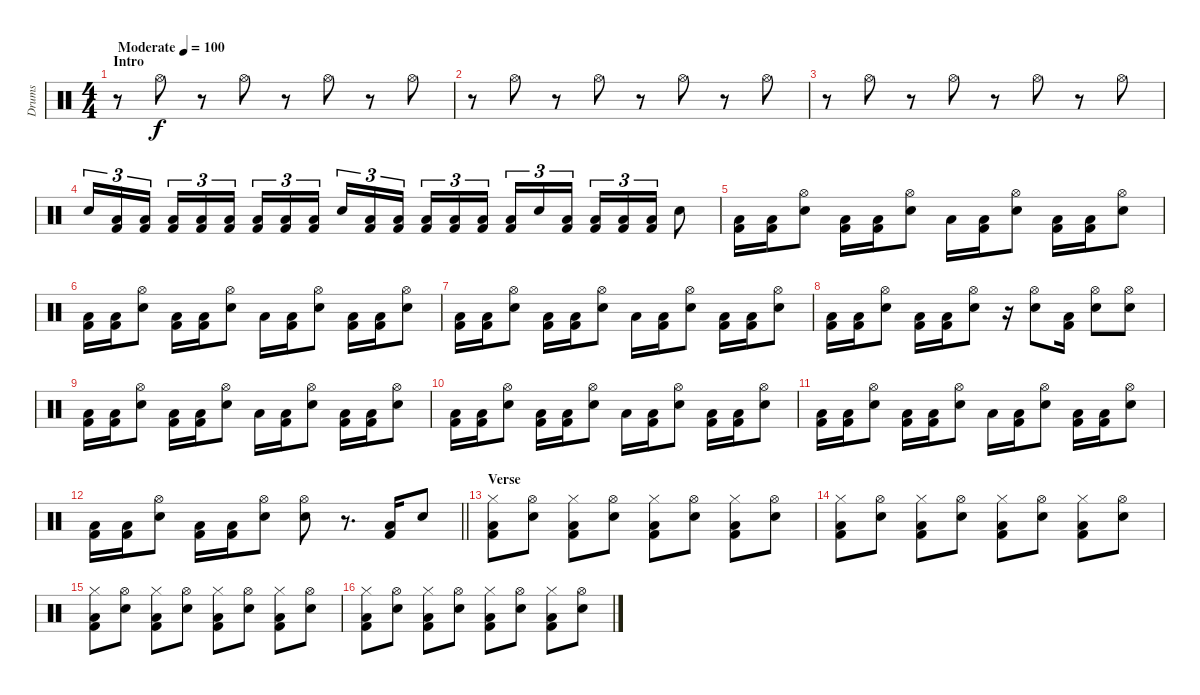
\track ("Drums" "Drums") {instrument percussion}
\staff {score}
\articulation defaults
\ts (4 4)
\section ("" "Intro")
\tempo (100 "Moderate")
\clef neutral
\ks c
r.8{dy f} "Hi-Hat (open)".8 r.8 "Hi-Hat (open)".8 r.8 "Hi-Hat (open)".8 r.8 "Hi-Hat (open)".8 |
r.8 "Hi-Hat (open)".8 r.8 "Hi-Hat (open)".8 r.8 "Hi-Hat (open)".8 r.8 "Hi-Hat (open)".8 |
r.8 "Hi-Hat (open)".8 r.8 "Hi-Hat (open)".8 r.8 "Hi-Hat (open)".8 r.8 "Hi-Hat (open)".8 |
"Snare (hit) 2".16{tu (3 2)} ("Low Floor Tom (hit)" "Kick (hit) 2").16{tu (3 2)} ("Low Floor Tom (hit)" "Kick (hit) 2").16{tu (3 2) beam splitsecondary} ("Low Floor Tom (hit)" "Kick (hit) 2").16{tu (3 2)} ("Low Floor Tom (hit)" "Kick (hit) 2").16{tu (3 2)} ("Low Floor Tom (hit)" "Kick (hit) 2").16{tu (3 2)} ("Low Floor Tom (hit)" "Kick (hit) 2").16{tu (3 2)} ("Low Floor Tom (hit)" "Kick (hit) 2").16{tu (3 2)} ("Low Floor Tom (hit)" "Kick (hit) 2").16{tu (3 2) beam splitsecondary} "Snare (hit) 2".16{tu (3 2)} ("Low Floor Tom (hit)" "Kick (hit) 2").16{tu (3 2)} ("Low Floor Tom (hit)" "Kick (hit) 2").16{tu (3 2)} ("Low Floor Tom (hit)" "Kick (hit) 2").16{tu (3 2)} ("Low Floor Tom (hit)" "Kick (hit) 2").16{tu (3 2)} ("Low Floor Tom (hit)" "Kick (hit) 2").16{tu (3 2) beam splitsecondary} ("Low Floor Tom (hit)" "Kick (hit) 2").16{tu (3 2)} "Snare (hit) 2".16{tu (3 2)} ("Low Floor Tom (hit)" "Kick (hit) 2").16{tu (3 2)} ("Low Floor Tom (hit)" "Kick (hit) 2").16{tu (3 2)} ("Low Floor Tom (hit)" "Kick (hit) 2").16{tu (3 2)} ("Low Floor Tom (hit)" "Kick (hit) 2").16{tu (3 2)} "Snare (hit) 2".8 |
("Low Floor Tom (hit)" "Kick (hit) 2").16 ("Low Floor Tom (hit)" "Kick (hit) 2").16 ("Hi-Hat (open)" "Snare (hit) 2").8 ("Low Floor Tom (hit)" "Kick (hit) 2").16 ("Low Floor Tom (hit)" "Kick (hit) 2").16 ("Hi-Hat (open)" "Snare (hit) 2").8 "Low Floor Tom (hit)".16 ("Low Floor Tom (hit)" "Kick (hit) 2").16 ("Hi-Hat (open)" "Snare (hit) 2").8 ("Low Floor Tom (hit)" "Kick (hit) 2").16 ("Low Floor Tom (hit)" "Kick (hit) 2").16 ("Hi-Hat (open)" "Snare (hit) 2").8 |
("Low Floor Tom (hit)" "Kick (hit) 2").16 ("Low Floor Tom (hit)" "Kick (hit) 2").16 ("Hi-Hat (open)" "Snare (hit) 2").8 ("Low Floor Tom (hit)" "Kick (hit) 2").16 ("Low Floor Tom (hit)" "Kick (hit) 2").16 ("Hi-Hat (open)" "Snare (hit) 2").8 "Low Floor Tom (hit)".16 ("Low Floor Tom (hit)" "Kick (hit) 2").16 ("Hi-Hat (open)" "Snare (hit) 2").8 ("Low Floor Tom (hit)" "Kick (hit) 2").16 ("Low Floor Tom (hit)" "Kick (hit) 2").16 ("Hi-Hat (open)" "Snare (hit) 2").8 |
("Low Floor Tom (hit)" "Kick (hit) 2").16 ("Low Floor Tom (hit)" "Kick (hit) 2").16 ("Hi-Hat (open)" "Snare (hit) 2").8 ("Low Floor Tom (hit)" "Kick (hit) 2").16 ("Low Floor Tom (hit)" "Kick (hit) 2").16 ("Hi-Hat (open)" "Snare (hit) 2").8 "Low Floor Tom (hit)".16 ("Low Floor Tom (hit)" "Kick (hit) 2").16 ("Hi-Hat (open)" "Snare (hit) 2").8 ("Low Floor Tom (hit)" "Kick (hit) 2").16 ("Low Floor Tom (hit)" "Kick (hit) 2").16 ("Hi-Hat (open)" "Snare (hit) 2").8 |
("Low Floor Tom (hit)" "Kick (hit) 2").16 ("Low Floor Tom (hit)" "Kick (hit) 2").16 ("Hi-Hat (open)" "Snare (hit) 2").8 ("Low Floor Tom (hit)" "Kick (hit) 2").16 ("Low Floor Tom (hit)" "Kick (hit) 2").16 ("Hi-Hat (open)" "Snare (hit) 2").8 r.16 ("Hi-Hat (open)" "Snare (hit) 2").8 ("Low Floor Tom (hit)" "Kick (hit) 2").16 ("Hi-Hat (open)" "Snare (hit) 2").8 ("Hi-Hat (open)" "Snare (hit) 2").8 |
("Low Floor Tom (hit)" "Kick (hit) 2").16 ("Low Floor Tom (hit)" "Kick (hit) 2").16 ("Hi-Hat (open)" "Snare (hit) 2").8 ("Low Floor Tom (hit)" "Kick (hit) 2").16 ("Low Floor Tom (hit)" "Kick (hit) 2").16 ("Hi-Hat (open)" "Snare (hit) 2").8 "Low Floor Tom (hit)".16 ("Low Floor Tom (hit)" "Kick (hit) 2").16 ("Hi-Hat (open)" "Snare (hit) 2").8 ("Low Floor Tom (hit)" "Kick (hit) 2").16 ("Low Floor Tom (hit)" "Kick (hit) 2").16 ("Hi-Hat (open)" "Snare (hit) 2").8 |
("Low Floor Tom (hit)" "Kick (hit) 2").16 ("Low Floor Tom (hit)" "Kick (hit) 2").16 ("Hi-Hat (open)" "Snare (hit) 2").8 ("Low Floor Tom (hit)" "Kick (hit) 2").16 ("Low Floor Tom (hit)" "Kick (hit) 2").16 ("Hi-Hat (open)" "Snare (hit) 2").8 "Low Floor Tom (hit)".16 ("Low Floor Tom (hit)" "Kick (hit) 2").16 ("Hi-Hat (open)" "Snare (hit) 2").8 ("Low Floor Tom (hit)" "Kick (hit) 2").16 ("Low Floor Tom (hit)" "Kick (hit) 2").16 ("Hi-Hat (open)" "Snare (hit) 2").8 |
("Low Floor Tom (hit)" "Kick (hit) 2").16 ("Low Floor Tom (hit)" "Kick (hit) 2").16 ("Hi-Hat (open)" "Snare (hit) 2").8 ("Low Floor Tom (hit)" "Kick (hit) 2").16 ("Low Floor Tom (hit)" "Kick (hit) 2").16 ("Hi-Hat (open)" "Snare (hit) 2").8 "Low Floor Tom (hit)".16 ("Low Floor Tom (hit)" "Kick (hit) 2").16 ("Hi-Hat (open)" "Snare (hit) 2").8 ("Low Floor Tom (hit)" "Kick (hit) 2").16 ("Low Floor Tom (hit)" "Kick (hit) 2").16 ("Hi-Hat (open)" "Snare (hit) 2").8 |
\barLineRight lightlight
("Low Floor Tom (hit)" "Kick (hit) 2").16 ("Low Floor Tom (hit)" "Kick (hit) 2").16 ("Hi-Hat (open)" "Snare (hit) 2").8 ("Low Floor Tom (hit)" "Kick (hit) 2").16 ("Low Floor Tom (hit)" "Kick (hit) 2").16 ("Hi-Hat (open)" "Snare (hit) 2").8 ("Hi-Hat (open)" "Snare (hit) 2").8 r.8{d} ("Low Floor Tom (hit)" "Kick (hit) 2").16 "Snare (hit) 2".8 |
\section ("" "Verse")
("Hi-Hat (closed)" "Low Floor Tom (hit)" "Kick (hit) 2").8 ("Hi-Hat (open)" "Snare (hit) 2").8 ("Hi-Hat (closed)" "Low Floor Tom (hit)" "Kick (hit) 2").8 ("Hi-Hat (open)" "Snare (hit) 2").8 ("Hi-Hat (closed)" "Low Floor Tom (hit)" "Kick (hit) 2").8 ("Hi-Hat (open)" "Snare (hit) 2").8 ("Hi-Hat (closed)" "Low Floor Tom (hit)" "Kick (hit) 2").8 ("Hi-Hat (open)" "Snare (hit) 2").8 |
("Hi-Hat (closed)" "Low Floor Tom (hit)" "Kick (hit) 2").8 ("Hi-Hat (open)" "Snare (hit) 2").8 ("Hi-Hat (closed)" "Low Floor Tom (hit)" "Kick (hit) 2").8 ("Hi-Hat (open)" "Snare (hit) 2").8 ("Hi-Hat (closed)" "Low Floor Tom (hit)" "Kick (hit) 2").8 ("Hi-Hat (open)" "Snare (hit) 2").8 ("Hi-Hat (closed)" "Low Floor Tom (hit)" "Kick (hit) 2").8 ("Hi-Hat (open)" "Snare (hit) 2").8 |
("Hi-Hat (closed)" "Low Floor Tom (hit)" "Kick (hit) 2").8 ("Hi-Hat (open)" "Snare (hit) 2").8 ("Hi-Hat (closed)" "Low Floor Tom (hit)" "Kick (hit) 2").8 ("Hi-Hat (open)" "Snare (hit) 2").8 ("Hi-Hat (closed)" "Low Floor Tom (hit)" "Kick (hit) 2").8 ("Hi-Hat (open)" "Snare (hit) 2").8 ("Hi-Hat (closed)" "Low Floor Tom (hit)" "Kick (hit) 2").8 ("Hi-Hat (open)" "Snare (hit) 2").8 |
("Hi-Hat (closed)" "Low Floor Tom (hit)" "Kick (hit) 2").8 ("Hi-Hat (open)" "Snare (hit) 2").8 ("Hi-Hat (closed)" "Low Floor Tom (hit)" "Kick (hit) 2").8 ("Hi-Hat (open)" "Snare (hit) 2").8 ("Hi-Hat (closed)" "Low Floor Tom (hit)" "Kick (hit) 2").8 ("Hi-Hat (open)" "Snare (hit) 2").8 ("Hi-Hat (closed)" "Low Floor Tom (hit)" "Kick (hit) 2").8 ("Hi-Hat (open)" "Snare (hit) 2").8
